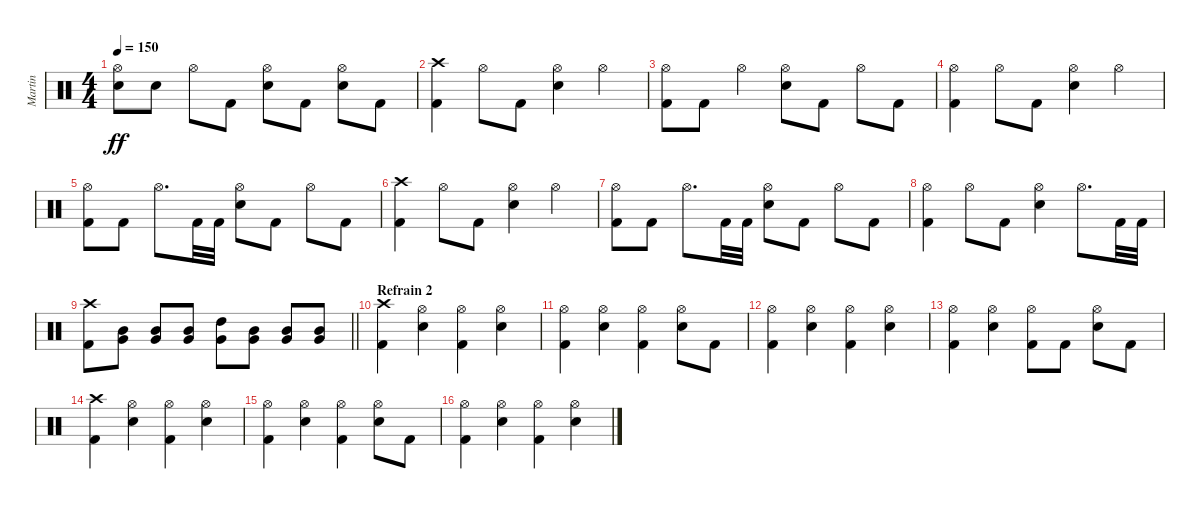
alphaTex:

\track ("Martin" "Martin") {instrument percussion}
\staff {score}
\articulation defaults
\ts (4 4)
\tempo 150
\clef neutral
\ks c
("Hi-Hat (open)" "Electric Snare (hit)").8{dy ff} "Electric Snare (hit)".8 "Hi-Hat (open)".8 "Kick (hit) 2".8 ("Hi-Hat (open)" "Electric Snare (hit)").8 "Kick (hit) 2".8 ("Hi-Hat (open)" "Electric Snare (hit)").8 "Kick (hit) 2".8 |
("Crash high (hit)" "Kick (hit) 2").4 "Hi-Hat (open)".8 "Kick (hit) 2".8 ("Hi-Hat (open)" "Electric Snare (hit)").4 "Hi-Hat (open)".4 |
("Hi-Hat (open)" "Kick (hit) 2").8 "Kick (hit) 2".8 "Hi-Hat (open)".4 ("Hi-Hat (open)" "Electric Snare (hit)").8 "Kick (hit) 2".8 "Hi-Hat (open)".8 "Kick (hit) 2".8 |
("Hi-Hat (open)" "Kick (hit) 2").4 "Hi-Hat (open)".8 "Kick (hit) 2".8 ("Hi-Hat (open)" "Electric Snare (hit)").4 "Hi-Hat (open)".4 |
("Hi-Hat (open)" "Kick (hit) 2").8 "Kick (hit) 2".8 "Hi-Hat (open)".8{d} "Kick (hit) 2".32 "Kick (hit) 2".32 ("Hi-Hat (open)" "Electric Snare (hit)").8 "Kick (hit) 2".8 "Hi-Hat (open)".8 "Kick (hit) 2".8 |
("Crash high (hit)" "Kick (hit) 2").4 "Hi-Hat (open)".8 "Kick (hit) 2".8 ("Hi-Hat (open)" "Electric Snare (hit)").4 "Hi-Hat (open)".4 |
("Hi-Hat (open)" "Kick (hit) 2").8 "Kick (hit) 2".8 "Hi-Hat (open)".8{d} "Kick (hit) 2".32 "Kick (hit) 2".32 ("Hi-Hat (open)" "Electric Snare (hit)").8 "Kick (hit) 2".8 "Hi-Hat (open)".8 "Kick (hit) 2".8 |
("Hi-Hat (open)" "Kick (hit) 2").4 "Hi-Hat (open)".8 "Kick (hit) 2".8 ("Hi-Hat (open)" "Electric Snare (hit)").4 "Hi-Hat (open)".8{d} "Kick (hit) 2".32 "Kick (hit) 2".32 |
\barLineRight lightlight
("Crash high (hit)" "Kick (hit) 2").8 ("Mid Tom (hit)" "Very Low Tom (hit)").8 ("Mid Tom (hit)" "Very Low Tom (hit)").8 ("Mid Tom (hit)" "Very Low Tom (hit)").8 ("High Tom (hit)" "Very Low Tom (hit)").8 ("Mid Tom (hit)" "Very Low Tom (hit)").8 ("Mid Tom (hit)" "Very Low Tom (hit)").8 ("Mid Tom (hit)" "Very Low Tom (hit)").8 |
\section ("" "Refrain 2")
("Crash high (hit)" "Kick (hit) 2").4 ("Hi-Hat (open)" "Electric Snare (hit)").4 ("Hi-Hat (open)" "Kick (hit) 2").4 ("Hi-Hat (open)" "Electric Snare (hit)").4 |
("Hi-Hat (open)" "Kick (hit) 2").4 ("Hi-Hat (open)" "Electric Snare (hit)").4 ("Hi-Hat (open)" "Kick (hit) 2").4 ("Hi-Hat (open)" "Electric Snare (hit)").8 "Kick (hit) 2".8 |
("Hi-Hat (open)" "Kick (hit) 2").4 ("Hi-Hat (open)" "Electric Snare (hit)").4 ("Hi-Hat (open)" "Kick (hit) 2").4 ("Hi-Hat (open)" "Electric Snare (hit)").4 |
("Hi-Hat (open)" "Kick (hit) 2").4 ("Hi-Hat (open)" "Electric Snare (hit)").4 ("Hi-Hat (open)" "Kick (hit) 2").8 "Kick (hit) 2".8 ("Hi-Hat (open)" "Electric Snare (hit)").8 "Kick (hit) 2".8 |
("Crash high (hit)" "Kick (hit) 2").4 ("Hi-Hat (open)" "Electric Snare (hit)").4 ("Hi-Hat (open)" "Kick (hit) 2").4 ("Hi-Hat (open)" "Electric Snare (hit)").4 |
("Hi-Hat (open)" "Kick (hit) 2").4 ("Hi-Hat (open)" "Electric Snare (hit)").4 ("Hi-Hat (open)" "Kick (hit) 2").4 ("Hi-Hat (open)" "Electric Snare (hit)").8 "Kick (hit) 2".8 |
("Hi-Hat (open)" "Kick (hit) 2").4 ("Hi-Hat (open)" "Electric Snare (hit)").4 ("Hi-Hat (open)" "Kick (hit) 2").4 ("Hi-Hat (open)" "Electric Snare (hit)").4
